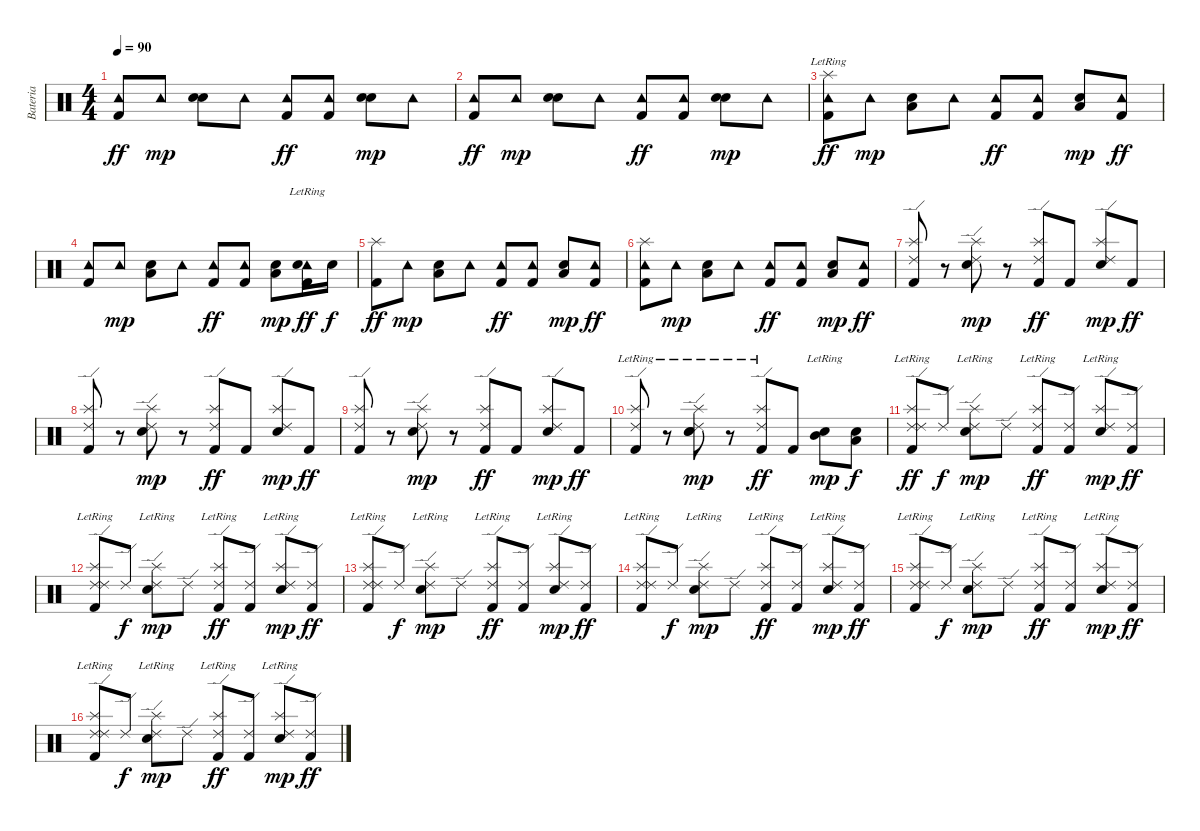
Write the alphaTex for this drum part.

\track ("Bateria" "Bateria") {instrument percussion}
\staff {score}
\articulation defaults
\ts (4 4)
\tempo 90
\clef neutral
\ks c
("Tambourine (hit)" "Kick (hit) 2").8{dy ff} "Tambourine (hit)".8{dy mp} ("Electric Snare (hit)" "Electric Snare (hit)").8 "Tambourine (hit)".8 ("Tambourine (hit)" "Kick (hit) 2").8{dy ff} ("Tambourine (hit)" "Kick (hit) 2").8 ("Electric Snare (hit)" "Electric Snare (hit)").8{dy mp} "Tambourine (hit)".8 |
("Tambourine (hit)" "Kick (hit) 2").8{dy ff} "Tambourine (hit)".8{dy mp} ("Electric Snare (hit)" "Electric Snare (hit)").8 "Tambourine (hit)".8 ("Tambourine (hit)" "Kick (hit) 2").8{dy ff} ("Tambourine (hit)" "Kick (hit) 2").8 ("Electric Snare (hit)" "Electric Snare (hit)").8{dy mp} "Tambourine (hit)".8 |
("Tambourine (hit)" "Splash (hit)"{lr} "Kick (hit) 2").8{dy ff} "Tambourine (hit)".8{dy mp} ("Low Tom (hit)" "Electric Snare (hit)").8 "Tambourine (hit)".8 ("Tambourine (hit)" "Kick (hit) 2").8{dy ff} ("Tambourine (hit)" "Kick (hit) 2").8 ("Low Tom (hit)" "Electric Snare (hit)").8{dy mp} ("Tambourine (hit)" "Kick (hit) 2").8{dy ff} |
("Tambourine (hit)" "Kick (hit) 2").8 "Tambourine (hit)".8{dy mp} ("Low Tom (hit)" "Electric Snare (hit)").8 "Tambourine (hit)".8 ("Tambourine (hit)" "Kick (hit) 2").8{dy ff} ("Tambourine (hit)" "Kick (hit) 2").8 ("Low Tom (hit)" "Electric Snare (hit)").8{dy mp} ("Tambourine (hit)"{lr} "Electric Snare (hit)" "Kick (hit) 2"{lr}).16{dy ff} "Electric Snare (hit)".16{dy f} |
("Splash (hit)" "Kick (hit) 2").8{dy ff} "Tambourine (hit)".8{dy mp} ("Low Tom (hit)" "Electric Snare (hit)").8 "Tambourine (hit)".8 ("Tambourine (hit)" "Kick (hit) 2").8{dy ff} ("Tambourine (hit)" "Kick (hit) 2").8 ("Low Tom (hit)" "Electric Snare (hit)").8{dy mp} ("Tambourine (hit)" "Kick (hit) 2").8{dy ff} |
("Tambourine (hit)" "Splash (hit)" "Kick (hit) 2").8 "Tambourine (hit)".8{dy mp} ("Low Tom (hit)" "Electric Snare (hit)").8 "Tambourine (hit)".8 ("Tambourine (hit)" "Kick (hit) 2").8{dy ff} ("Tambourine (hit)" "Kick (hit) 2").8 ("Low Tom (hit)" "Electric Snare (hit)").8{dy mp} ("Tambourine (hit)" "Kick (hit) 2").8{dy ff} |
("Splash (hit)" "Ride (edge) 2" "Kick (hit) 2").8 r.8 ("Splash (hit)" "Electric Snare (hit)" "Ride (edge) 2").8{dy mp} r.8 ("Splash (hit)" "Ride (edge) 2" "Kick (hit) 2").8{dy ff} "Kick (hit) 2".8 ("Splash (hit)" "Electric Snare (hit)" "Ride (edge) 2").8{dy mp} "Kick (hit) 2".8{dy ff} |
("Splash (hit)" "Ride (edge) 2" "Kick (hit) 2").8 r.8 ("Splash (hit)" "Electric Snare (hit)" "Ride (edge) 2").8{dy mp} r.8 ("Splash (hit)" "Ride (edge) 2" "Kick (hit) 2").8{dy ff} "Kick (hit) 2".8 ("Splash (hit)" "Electric Snare (hit)" "Ride (edge) 2").8{dy mp} "Kick (hit) 2".8{dy ff} |
("Splash (hit)" "Ride (edge) 2" "Kick (hit) 2").8 r.8 ("Splash (hit)" "Electric Snare (hit)" "Ride (edge) 2").8{dy mp} r.8 ("Splash (hit)" "Ride (edge) 2" "Kick (hit) 2").8{dy ff} "Kick (hit) 2".8 ("Splash (hit)" "Electric Snare (hit)" "Ride (edge) 2").8{dy mp} "Kick (hit) 2".8{dy ff} |
("Splash (hit)"{lr} "Ride (edge) 2" "Kick (hit) 2").8 r.8 ("Splash (hit)"{lr} "Electric Snare (hit)" "Ride (edge) 2" "Snare (hit)").8{dy mp} r.8 ("Splash (hit)"{lr} "Ride (edge) 2" "Kick (hit) 2").8{dy ff} "Kick (hit) 2".8 ("Electric Snare (hit)"{lr} "Mid Tom (hit)").8{dy mp} ("Electric Snare (hit)" "Low Tom (hit)").8{dy f} |
("Splash (hit)"{lr} "Ride (edge) 2" "Ride (edge) 2" "Kick (hit) 2").8{dy ff} "Ride (edge) 2".8{dy f} ("Splash (hit)"{lr} "Electric Snare (hit)" "Ride (edge) 2").8{dy mp} "Ride (edge) 2".8 ("Splash (hit)"{lr} "Ride (edge) 2" "Kick (hit) 2").8{dy ff} ("Ride (edge) 2" "Kick (hit) 2").8 ("Splash (hit)"{lr} "Electric Snare (hit)" "Ride (edge) 2").8{dy mp} ("Ride (edge) 2" "Kick (hit) 2").8{dy ff} |
("Splash (hit)"{lr} "Ride (edge) 2" "Ride (edge) 2" "Kick (hit) 2").8 "Ride (edge) 2".8{dy f} ("Splash (hit)"{lr} "Electric Snare (hit)" "Ride (edge) 2").8{dy mp} "Ride (edge) 2".8 ("Splash (hit)"{lr} "Ride (edge) 2" "Kick (hit) 2").8{dy ff} ("Ride (edge) 2" "Kick (hit) 2").8 ("Splash (hit)"{lr} "Electric Snare (hit)" "Ride (edge) 2").8{dy mp} ("Ride (edge) 2" "Kick (hit) 2").8{dy ff} |
("Splash (hit)"{lr} "Ride (edge) 2" "Ride (edge) 2" "Kick (hit) 2").8 "Ride (edge) 2".8{dy f} ("Splash (hit)"{lr} "Electric Snare (hit)" "Ride (edge) 2").8{dy mp} "Ride (edge) 2".8 ("Splash (hit)"{lr} "Ride (edge) 2" "Kick (hit) 2").8{dy ff} ("Ride (edge) 2" "Kick (hit) 2").8 ("Splash (hit)"{lr} "Electric Snare (hit)" "Ride (edge) 2").8{dy mp} ("Ride (edge) 2" "Kick (hit) 2").8{dy ff} |
("Splash (hit)"{lr} "Ride (edge) 2" "Ride (edge) 2" "Kick (hit) 2").8 "Ride (edge) 2".8{dy f} ("Splash (hit)"{lr} "Electric Snare (hit)" "Ride (edge) 2").8{dy mp} "Ride (edge) 2".8 ("Splash (hit)"{lr} "Ride (edge) 2" "Kick (hit) 2").8{dy ff} ("Ride (edge) 2" "Kick (hit) 2").8 ("Splash (hit)"{lr} "Electric Snare (hit)" "Ride (edge) 2").8{dy mp} ("Ride (edge) 2" "Kick (hit) 2").8{dy ff} |
("Splash (hit)"{lr} "Ride (edge) 2" "Ride (edge) 2" "Kick (hit) 2").8 "Ride (edge) 2".8{dy f} ("Splash (hit)"{lr} "Electric Snare (hit)" "Ride (edge) 2").8{dy mp} "Ride (edge) 2".8 ("Splash (hit)"{lr} "Ride (edge) 2" "Kick (hit) 2").8{dy ff} ("Ride (edge) 2" "Kick (hit) 2").8 ("Splash (hit)"{lr} "Electric Snare (hit)" "Ride (edge) 2").8{dy mp} ("Ride (edge) 2" "Kick (hit) 2").8{dy ff} |
("Splash (hit)"{lr} "Ride (edge) 2" "Ride (edge) 2" "Kick (hit) 2").8 "Ride (edge) 2".8{dy f} ("Splash (hit)"{lr} "Electric Snare (hit)" "Ride (edge) 2").8{dy mp} "Ride (edge) 2".8 ("Splash (hit)"{lr} "Ride (edge) 2" "Kick (hit) 2").8{dy ff} ("Ride (edge) 2" "Kick (hit) 2").8 ("Splash (hit)"{lr} "Electric Snare (hit)" "Ride (edge) 2").8{dy mp} ("Ride (edge) 2" "Kick (hit) 2").8{dy ff}
